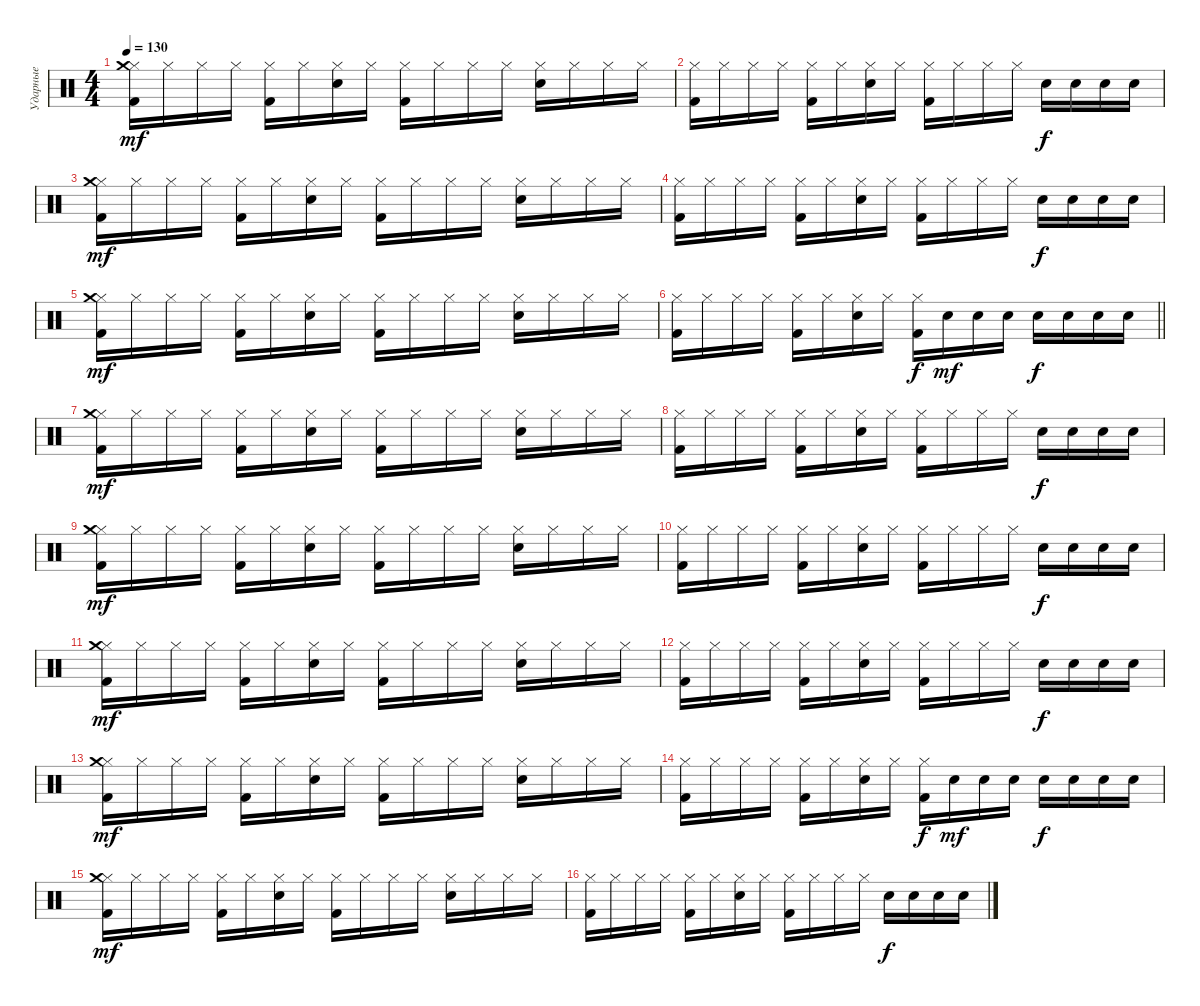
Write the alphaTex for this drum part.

\track ("Ударные" "Ударные") {instrument percussion}
\staff {score}
\articulation defaults
\ts (4 4)
\tempo 130
\clef neutral
\ks c
("Hi-Hat (closed)" "Crash medium (hit)" "Kick (hit) 2").16{dy mf} "Hi-Hat (closed)".16 "Hi-Hat (closed)".16 "Hi-Hat (closed)".16 ("Hi-Hat (closed)" "Kick (hit) 2").16 "Hi-Hat (closed)".16 ("Hi-Hat (closed)" "Electric Snare (hit)").16 "Hi-Hat (closed)".16 ("Hi-Hat (closed)" "Kick (hit) 2").16 "Hi-Hat (closed)".16 "Hi-Hat (closed)".16 "Hi-Hat (closed)".16 ("Hi-Hat (closed)" "Electric Snare (hit)").16 "Hi-Hat (closed)".16 "Hi-Hat (closed)".16 "Hi-Hat (closed)".16 |
("Hi-Hat (closed)" "Kick (hit) 2").16 "Hi-Hat (closed)".16 "Hi-Hat (closed)".16 "Hi-Hat (closed)".16 ("Hi-Hat (closed)" "Kick (hit) 2").16 "Hi-Hat (closed)".16 ("Hi-Hat (closed)" "Electric Snare (hit)").16 "Hi-Hat (closed)".16 ("Hi-Hat (closed)" "Kick (hit) 2").16 "Hi-Hat (closed)".16 "Hi-Hat (closed)".16 "Hi-Hat (closed)".16 "Electric Snare (hit)".16{dy f} "Electric Snare (hit)".16 "Electric Snare (hit)".16 "Electric Snare (hit)".16 |
("Hi-Hat (closed)" "Crash medium (hit)" "Kick (hit) 2").16{dy mf} "Hi-Hat (closed)".16 "Hi-Hat (closed)".16 "Hi-Hat (closed)".16 ("Hi-Hat (closed)" "Kick (hit) 2").16 "Hi-Hat (closed)".16 ("Hi-Hat (closed)" "Electric Snare (hit)").16 "Hi-Hat (closed)".16 ("Hi-Hat (closed)" "Kick (hit) 2").16 "Hi-Hat (closed)".16 "Hi-Hat (closed)".16 "Hi-Hat (closed)".16 ("Hi-Hat (closed)" "Electric Snare (hit)").16 "Hi-Hat (closed)".16 "Hi-Hat (closed)".16 "Hi-Hat (closed)".16 |
("Hi-Hat (closed)" "Kick (hit) 2").16 "Hi-Hat (closed)".16 "Hi-Hat (closed)".16 "Hi-Hat (closed)".16 ("Hi-Hat (closed)" "Kick (hit) 2").16 "Hi-Hat (closed)".16 ("Hi-Hat (closed)" "Electric Snare (hit)").16 "Hi-Hat (closed)".16 ("Hi-Hat (closed)" "Kick (hit) 2").16 "Hi-Hat (closed)".16 "Hi-Hat (closed)".16 "Hi-Hat (closed)".16 "Electric Snare (hit)".16{dy f} "Electric Snare (hit)".16 "Electric Snare (hit)".16 "Electric Snare (hit)".16 |
("Hi-Hat (closed)" "Crash medium (hit)" "Kick (hit) 2").16{dy mf} "Hi-Hat (closed)".16 "Hi-Hat (closed)".16 "Hi-Hat (closed)".16 ("Hi-Hat (closed)" "Kick (hit) 2").16 "Hi-Hat (closed)".16 ("Hi-Hat (closed)" "Electric Snare (hit)").16 "Hi-Hat (closed)".16 ("Hi-Hat (closed)" "Kick (hit) 2").16 "Hi-Hat (closed)".16 "Hi-Hat (closed)".16 "Hi-Hat (closed)".16 ("Hi-Hat (closed)" "Electric Snare (hit)").16 "Hi-Hat (closed)".16 "Hi-Hat (closed)".16 "Hi-Hat (closed)".16 |
\barLineRight lightlight
("Hi-Hat (closed)" "Kick (hit) 2").16 "Hi-Hat (closed)".16 "Hi-Hat (closed)".16 "Hi-Hat (closed)".16 ("Hi-Hat (closed)" "Kick (hit) 2").16 "Hi-Hat (closed)".16 ("Hi-Hat (closed)" "Electric Snare (hit)").16 "Hi-Hat (closed)".16 ("Hi-Hat (closed)" "Kick (hit) 2").16{dy f} "Electric Snare (hit)".16{dy mf} "Electric Snare (hit)".16 "Electric Snare (hit)".16 "Electric Snare (hit)".16{dy f} "Electric Snare (hit)".16 "Electric Snare (hit)".16 "Electric Snare (hit)".16 |
("Hi-Hat (closed)" "Crash medium (hit)" "Kick (hit) 2").16{dy mf} "Hi-Hat (closed)".16 "Hi-Hat (closed)".16 "Hi-Hat (closed)".16 ("Hi-Hat (closed)" "Kick (hit) 2").16 "Hi-Hat (closed)".16 ("Hi-Hat (closed)" "Electric Snare (hit)").16 "Hi-Hat (closed)".16 ("Hi-Hat (closed)" "Kick (hit) 2").16 "Hi-Hat (closed)".16 "Hi-Hat (closed)".16 "Hi-Hat (closed)".16 ("Hi-Hat (closed)" "Electric Snare (hit)").16 "Hi-Hat (closed)".16 "Hi-Hat (closed)".16 "Hi-Hat (closed)".16 |
("Hi-Hat (closed)" "Kick (hit) 2").16 "Hi-Hat (closed)".16 "Hi-Hat (closed)".16 "Hi-Hat (closed)".16 ("Hi-Hat (closed)" "Kick (hit) 2").16 "Hi-Hat (closed)".16 ("Hi-Hat (closed)" "Electric Snare (hit)").16 "Hi-Hat (closed)".16 ("Hi-Hat (closed)" "Kick (hit) 2").16 "Hi-Hat (closed)".16 "Hi-Hat (closed)".16 "Hi-Hat (closed)".16 "Electric Snare (hit)".16{dy f} "Electric Snare (hit)".16 "Electric Snare (hit)".16 "Electric Snare (hit)".16 |
("Hi-Hat (closed)" "Crash medium (hit)" "Kick (hit) 2").16{dy mf} "Hi-Hat (closed)".16 "Hi-Hat (closed)".16 "Hi-Hat (closed)".16 ("Hi-Hat (closed)" "Kick (hit) 2").16 "Hi-Hat (closed)".16 ("Hi-Hat (closed)" "Electric Snare (hit)").16 "Hi-Hat (closed)".16 ("Hi-Hat (closed)" "Kick (hit) 2").16 "Hi-Hat (closed)".16 "Hi-Hat (closed)".16 "Hi-Hat (closed)".16 ("Hi-Hat (closed)" "Electric Snare (hit)").16 "Hi-Hat (closed)".16 "Hi-Hat (closed)".16 "Hi-Hat (closed)".16 |
("Hi-Hat (closed)" "Kick (hit) 2").16 "Hi-Hat (closed)".16 "Hi-Hat (closed)".16 "Hi-Hat (closed)".16 ("Hi-Hat (closed)" "Kick (hit) 2").16 "Hi-Hat (closed)".16 ("Hi-Hat (closed)" "Electric Snare (hit)").16 "Hi-Hat (closed)".16 ("Hi-Hat (closed)" "Kick (hit) 2").16 "Hi-Hat (closed)".16 "Hi-Hat (closed)".16 "Hi-Hat (closed)".16 "Electric Snare (hit)".16{dy f} "Electric Snare (hit)".16 "Electric Snare (hit)".16 "Electric Snare (hit)".16 |
("Hi-Hat (closed)" "Crash medium (hit)" "Kick (hit) 2").16{dy mf} "Hi-Hat (closed)".16 "Hi-Hat (closed)".16 "Hi-Hat (closed)".16 ("Hi-Hat (closed)" "Kick (hit) 2").16 "Hi-Hat (closed)".16 ("Hi-Hat (closed)" "Electric Snare (hit)").16 "Hi-Hat (closed)".16 ("Hi-Hat (closed)" "Kick (hit) 2").16 "Hi-Hat (closed)".16 "Hi-Hat (closed)".16 "Hi-Hat (closed)".16 ("Hi-Hat (closed)" "Electric Snare (hit)").16 "Hi-Hat (closed)".16 "Hi-Hat (closed)".16 "Hi-Hat (closed)".16 |
("Hi-Hat (closed)" "Kick (hit) 2").16 "Hi-Hat (closed)".16 "Hi-Hat (closed)".16 "Hi-Hat (closed)".16 ("Hi-Hat (closed)" "Kick (hit) 2").16 "Hi-Hat (closed)".16 ("Hi-Hat (closed)" "Electric Snare (hit)").16 "Hi-Hat (closed)".16 ("Hi-Hat (closed)" "Kick (hit) 2").16 "Hi-Hat (closed)".16 "Hi-Hat (closed)".16 "Hi-Hat (closed)".16 "Electric Snare (hit)".16{dy f} "Electric Snare (hit)".16 "Electric Snare (hit)".16 "Electric Snare (hit)".16 |
("Hi-Hat (closed)" "Crash medium (hit)" "Kick (hit) 2").16{dy mf} "Hi-Hat (closed)".16 "Hi-Hat (closed)".16 "Hi-Hat (closed)".16 ("Hi-Hat (closed)" "Kick (hit) 2").16 "Hi-Hat (closed)".16 ("Hi-Hat (closed)" "Electric Snare (hit)").16 "Hi-Hat (closed)".16 ("Hi-Hat (closed)" "Kick (hit) 2").16 "Hi-Hat (closed)".16 "Hi-Hat (closed)".16 "Hi-Hat (closed)".16 ("Hi-Hat (closed)" "Electric Snare (hit)").16 "Hi-Hat (closed)".16 "Hi-Hat (closed)".16 "Hi-Hat (closed)".16 |
("Hi-Hat (closed)" "Kick (hit) 2").16 "Hi-Hat (closed)".16 "Hi-Hat (closed)".16 "Hi-Hat (closed)".16 ("Hi-Hat (closed)" "Kick (hit) 2").16 "Hi-Hat (closed)".16 ("Hi-Hat (closed)" "Electric Snare (hit)").16 "Hi-Hat (closed)".16 ("Hi-Hat (closed)" "Kick (hit) 2").16{dy f} "Electric Snare (hit)".16{dy mf} "Electric Snare (hit)".16 "Electric Snare (hit)".16 "Electric Snare (hit)".16{dy f} "Electric Snare (hit)".16 "Electric Snare (hit)".16 "Electric Snare (hit)".16 |
("Hi-Hat (closed)" "Crash medium (hit)" "Kick (hit) 2").16{dy mf} "Hi-Hat (closed)".16 "Hi-Hat (closed)".16 "Hi-Hat (closed)".16 ("Hi-Hat (closed)" "Kick (hit) 2").16 "Hi-Hat (closed)".16 ("Hi-Hat (closed)" "Electric Snare (hit)").16 "Hi-Hat (closed)".16 ("Hi-Hat (closed)" "Kick (hit) 2").16 "Hi-Hat (closed)".16 "Hi-Hat (closed)".16 "Hi-Hat (closed)".16 ("Hi-Hat (closed)" "Electric Snare (hit)").16 "Hi-Hat (closed)".16 "Hi-Hat (closed)".16 "Hi-Hat (closed)".16 |
("Hi-Hat (closed)" "Kick (hit) 2").16 "Hi-Hat (closed)".16 "Hi-Hat (closed)".16 "Hi-Hat (closed)".16 ("Hi-Hat (closed)" "Kick (hit) 2").16 "Hi-Hat (closed)".16 ("Hi-Hat (closed)" "Electric Snare (hit)").16 "Hi-Hat (closed)".16 ("Hi-Hat (closed)" "Kick (hit) 2").16 "Hi-Hat (closed)".16 "Hi-Hat (closed)".16 "Hi-Hat (closed)".16 "Electric Snare (hit)".16{dy f} "Electric Snare (hit)".16 "Electric Snare (hit)".16 "Electric Snare (hit)".16
